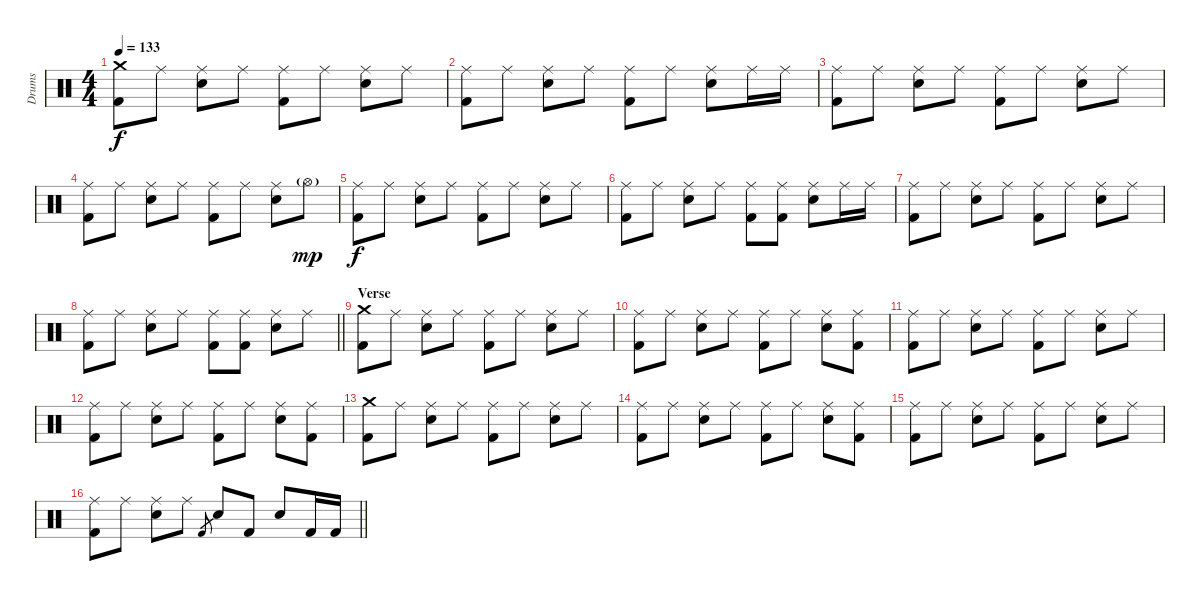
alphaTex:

\track ("Drums" "Drums") {instrument percussion}
\staff {score}
\articulation defaults
\ts (4 4)
\tempo 133
\clef neutral
\ks c
("Crash medium (hit)" "Kick (hit) 2").8{dy f} "Ride (middle)".8 ("Ride (middle)" "Snare (hit) 2").8 "Ride (middle)".8 ("Ride (middle)" "Kick (hit) 2").8 "Ride (middle)".8 ("Ride (middle)" "Snare (hit) 2").8 "Ride (middle)".8 |
("Ride (middle)" "Kick (hit) 2").8 "Ride (middle)".8 ("Ride (middle)" "Snare (hit) 2").8 "Ride (middle)".8 ("Ride (middle)" "Kick (hit) 2").8 "Ride (middle)".8 ("Ride (middle)" "Snare (hit) 2").8 "Ride (middle)".16 "Ride (middle)".16 |
("Ride (middle)" "Kick (hit) 2").8 "Ride (middle)".8 ("Ride (middle)" "Snare (hit) 2").8 "Ride (middle)".8 ("Ride (middle)" "Kick (hit) 2").8 "Ride (middle)".8 ("Ride (middle)" "Snare (hit) 2").8 "Ride (middle)".8 |
("Ride (middle)" "Kick (hit) 2").8 "Ride (middle)".8 ("Ride (middle)" "Snare (hit) 2").8 "Ride (middle)".8 ("Ride (middle)" "Kick (hit) 2").8 "Ride (middle)".8 ("Ride (middle)" "Snare (hit) 2").8 "Hi-Hat (open)"{g}.8{dy mp} |
("Ride (middle)" "Kick (hit) 2").8{dy f} "Ride (middle)".8 ("Ride (middle)" "Snare (hit) 2").8 "Ride (middle)".8 ("Ride (middle)" "Kick (hit) 2").8 "Ride (middle)".8 ("Ride (middle)" "Snare (hit) 2").8 "Ride (middle)".8 |
("Ride (middle)" "Kick (hit) 2").8 "Ride (middle)".8 ("Ride (middle)" "Snare (hit) 2").8 "Ride (middle)".8 ("Ride (middle)" "Kick (hit) 2").8 ("Ride (middle)" "Kick (hit) 2").8 ("Ride (middle)" "Snare (hit) 2").8 "Ride (middle)".16 "Ride (middle)".16 |
("Ride (middle)" "Kick (hit) 2").8 "Ride (middle)".8 ("Ride (middle)" "Snare (hit) 2").8 "Ride (middle)".8 ("Ride (middle)" "Kick (hit) 2").8 "Ride (middle)".8 ("Ride (middle)" "Snare (hit) 2").8 "Ride (middle)".8 |
\barLineRight lightlight
("Ride (middle)" "Kick (hit) 2").8 "Ride (middle)".8 ("Ride (middle)" "Snare (hit) 2").8 "Ride (middle)".8 ("Ride (middle)" "Kick (hit) 2").8 ("Ride (middle)" "Kick (hit) 2").8 ("Ride (middle)" "Snare (hit) 2").8 "Ride (middle)".8 |
\section ("" "Verse")
("Crash medium (hit)" "Kick (hit) 2").8 "Ride (middle)".8 ("Ride (middle)" "Snare (hit) 2").8 "Ride (middle)".8 ("Ride (middle)" "Kick (hit) 2").8 "Ride (middle)".8 ("Ride (middle)" "Snare (hit) 2").8 "Ride (middle)".8 |
("Ride (middle)" "Kick (hit) 2").8 "Ride (middle)".8 ("Ride (middle)" "Snare (hit) 2").8 "Ride (middle)".8 ("Ride (middle)" "Kick (hit) 2").8 "Ride (middle)".8 ("Ride (middle)" "Snare (hit) 2").8 ("Ride (middle)" "Kick (hit) 2").8 |
("Ride (middle)" "Kick (hit) 2").8 "Ride (middle)".8 ("Ride (middle)" "Snare (hit) 2").8 "Ride (middle)".8 ("Ride (middle)" "Kick (hit) 2").8 "Ride (middle)".8 ("Ride (middle)" "Snare (hit) 2").8 "Ride (middle)".8 |
("Ride (middle)" "Kick (hit) 2").8 "Ride (middle)".8 ("Ride (middle)" "Snare (hit) 2").8 "Ride (middle)".8 ("Ride (middle)" "Kick (hit) 2").8 "Ride (middle)".8 ("Ride (middle)" "Snare (hit) 2").8 ("Ride (middle)" "Kick (hit) 2").8 |
("Crash medium (hit)" "Kick (hit) 2").8 "Ride (middle)".8 ("Ride (middle)" "Snare (hit) 2").8 "Ride (middle)".8 ("Ride (middle)" "Kick (hit) 2").8 "Ride (middle)".8 ("Ride (middle)" "Snare (hit) 2").8 "Ride (middle)".8 |
("Ride (middle)" "Kick (hit) 2").8 "Ride (middle)".8 ("Ride (middle)" "Snare (hit) 2").8 "Ride (middle)".8 ("Ride (middle)" "Kick (hit) 2").8 "Ride (middle)".8 ("Ride (middle)" "Snare (hit) 2").8 ("Ride (middle)" "Kick (hit) 2").8 |
("Ride (middle)" "Kick (hit) 2").8 "Ride (middle)".8 ("Ride (middle)" "Snare (hit) 2").8 "Ride (middle)".8 ("Ride (middle)" "Kick (hit) 2").8 "Ride (middle)".8 ("Ride (middle)" "Snare (hit) 2").8 "Ride (middle)".8 |
\barLineRight lightlight
("Ride (middle)" "Kick (hit) 2").8 "Ride (middle)".8 ("Ride (middle)" "Snare (hit) 2").8 "Ride (middle)".8 "Kick (hit) 2".8{gr} "Snare (hit) 2".8 "Kick (hit) 2".8 "Snare (hit) 2".8 "Kick (hit) 2".16 "Kick (hit) 2".16
